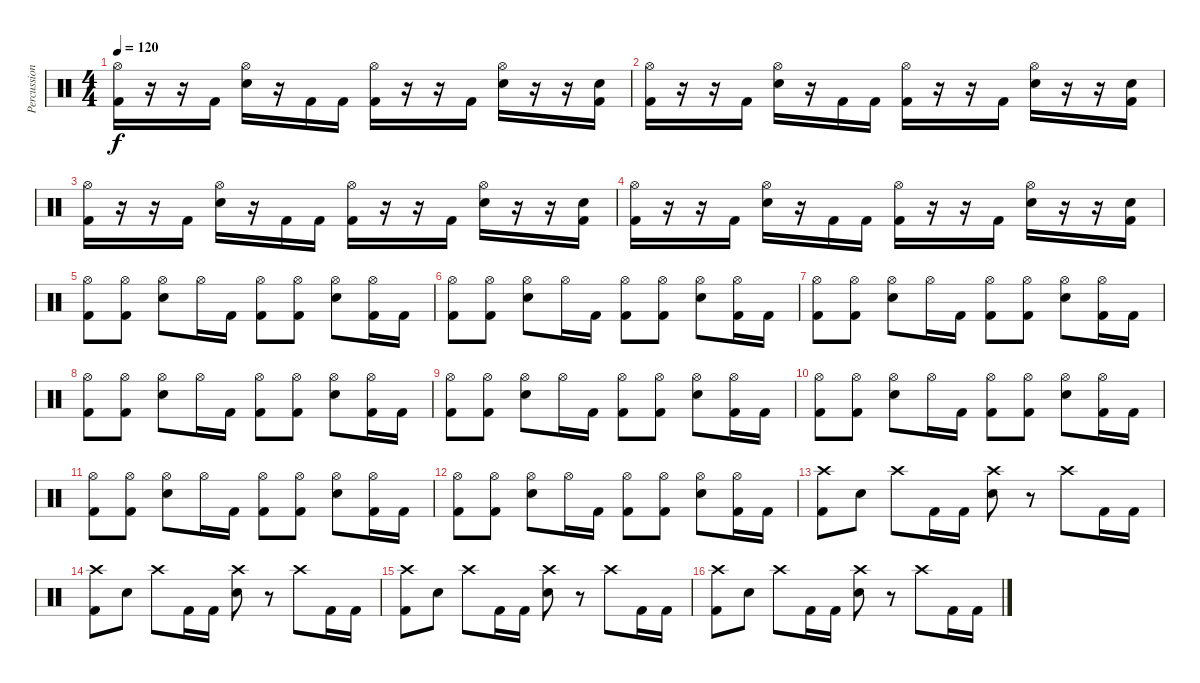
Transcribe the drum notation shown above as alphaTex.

\track ("Percussion" "Percussion") {instrument percussion}
\staff {score}
\articulation defaults
\ts (4 4)
\tempo 120
\clef neutral
\ks c
("Hi-Hat (open)" "Kick (hit) 2").16{dy f} r.16 r.16 "Kick (hit) 2".16 ("Hi-Hat (open)" "Electric Snare (hit)").16 r.16 "Kick (hit) 2".16 "Kick (hit) 2".16 ("Hi-Hat (open)" "Kick (hit) 2").16 r.16 r.16 "Kick (hit) 2".16 ("Hi-Hat (open)" "Electric Snare (hit)").16 r.16 r.16 ("Electric Snare (hit)" "Kick (hit) 2").16 |
("Hi-Hat (open)" "Kick (hit) 2").16 r.16 r.16 "Kick (hit) 2".16 ("Hi-Hat (open)" "Electric Snare (hit)").16 r.16 "Kick (hit) 2".16 "Kick (hit) 2".16 ("Hi-Hat (open)" "Kick (hit) 2").16 r.16 r.16 "Kick (hit) 2".16 ("Hi-Hat (open)" "Electric Snare (hit)").16 r.16 r.16 ("Electric Snare (hit)" "Kick (hit) 2").16 |
("Hi-Hat (open)" "Kick (hit) 2").16 r.16 r.16 "Kick (hit) 2".16 ("Hi-Hat (open)" "Electric Snare (hit)").16 r.16 "Kick (hit) 2".16 "Kick (hit) 2".16 ("Hi-Hat (open)" "Kick (hit) 2").16 r.16 r.16 "Kick (hit) 2".16 ("Hi-Hat (open)" "Electric Snare (hit)").16 r.16 r.16 ("Electric Snare (hit)" "Kick (hit) 2").16 |
("Hi-Hat (open)" "Kick (hit) 2").16 r.16 r.16 "Kick (hit) 2".16 ("Hi-Hat (open)" "Electric Snare (hit)").16 r.16 "Kick (hit) 2".16 "Kick (hit) 2".16 ("Hi-Hat (open)" "Kick (hit) 2").16 r.16 r.16 "Kick (hit) 2".16 ("Hi-Hat (open)" "Electric Snare (hit)").16 r.16 r.16 ("Electric Snare (hit)" "Kick (hit) 2").16 |
("Hi-Hat (open)" "Kick (hit) 2").8 ("Hi-Hat (open)" "Kick (hit) 2").8 ("Hi-Hat (open)" "Electric Snare (hit)").8 "Hi-Hat (open)".16 "Kick (hit) 2".16 ("Hi-Hat (open)" "Kick (hit) 2").8 ("Hi-Hat (open)" "Kick (hit) 2").8 ("Hi-Hat (open)" "Electric Snare (hit)").8 ("Hi-Hat (open)" "Kick (hit) 2").16 "Kick (hit) 2".16 |
("Hi-Hat (open)" "Kick (hit) 2").8 ("Hi-Hat (open)" "Kick (hit) 2").8 ("Hi-Hat (open)" "Electric Snare (hit)").8 "Hi-Hat (open)".16 "Kick (hit) 2".16 ("Hi-Hat (open)" "Kick (hit) 2").8 ("Hi-Hat (open)" "Kick (hit) 2").8 ("Hi-Hat (open)" "Electric Snare (hit)").8 ("Hi-Hat (open)" "Kick (hit) 2").16 "Kick (hit) 2".16 |
("Hi-Hat (open)" "Kick (hit) 2").8 ("Hi-Hat (open)" "Kick (hit) 2").8 ("Hi-Hat (open)" "Electric Snare (hit)").8 "Hi-Hat (open)".16 "Kick (hit) 2".16 ("Hi-Hat (open)" "Kick (hit) 2").8 ("Hi-Hat (open)" "Kick (hit) 2").8 ("Hi-Hat (open)" "Electric Snare (hit)").8 ("Hi-Hat (open)" "Kick (hit) 2").16 "Kick (hit) 2".16 |
("Hi-Hat (open)" "Kick (hit) 2").8 ("Hi-Hat (open)" "Kick (hit) 2").8 ("Hi-Hat (open)" "Electric Snare (hit)").8 "Hi-Hat (open)".16 "Kick (hit) 2".16 ("Hi-Hat (open)" "Kick (hit) 2").8 ("Hi-Hat (open)" "Kick (hit) 2").8 ("Hi-Hat (open)" "Electric Snare (hit)").8 ("Hi-Hat (open)" "Kick (hit) 2").16 "Kick (hit) 2".16 |
("Hi-Hat (open)" "Kick (hit) 2").8 ("Hi-Hat (open)" "Kick (hit) 2").8 ("Hi-Hat (open)" "Electric Snare (hit)").8 "Hi-Hat (open)".16 "Kick (hit) 2".16 ("Hi-Hat (open)" "Kick (hit) 2").8 ("Hi-Hat (open)" "Kick (hit) 2").8 ("Hi-Hat (open)" "Electric Snare (hit)").8 ("Hi-Hat (open)" "Kick (hit) 2").16 "Kick (hit) 2".16 |
("Hi-Hat (open)" "Kick (hit) 2").8 ("Hi-Hat (open)" "Kick (hit) 2").8 ("Hi-Hat (open)" "Electric Snare (hit)").8 "Hi-Hat (open)".16 "Kick (hit) 2".16 ("Hi-Hat (open)" "Kick (hit) 2").8 ("Hi-Hat (open)" "Kick (hit) 2").8 ("Hi-Hat (open)" "Electric Snare (hit)").8 ("Hi-Hat (open)" "Kick (hit) 2").16 "Kick (hit) 2".16 |
("Hi-Hat (open)" "Kick (hit) 2").8 ("Hi-Hat (open)" "Kick (hit) 2").8 ("Hi-Hat (open)" "Electric Snare (hit)").8 "Hi-Hat (open)".16 "Kick (hit) 2".16 ("Hi-Hat (open)" "Kick (hit) 2").8 ("Hi-Hat (open)" "Kick (hit) 2").8 ("Hi-Hat (open)" "Electric Snare (hit)").8 ("Hi-Hat (open)" "Kick (hit) 2").16 "Kick (hit) 2".16 |
("Hi-Hat (open)" "Kick (hit) 2").8 ("Hi-Hat (open)" "Kick (hit) 2").8 ("Hi-Hat (open)" "Electric Snare (hit)").8 "Hi-Hat (open)".16 "Kick (hit) 2".16 ("Hi-Hat (open)" "Kick (hit) 2").8 ("Hi-Hat (open)" "Kick (hit) 2").8 ("Hi-Hat (open)" "Electric Snare (hit)").8 ("Hi-Hat (open)" "Kick (hit) 2").16 "Kick (hit) 2".16 |
("Crash high (hit)" "Kick (hit) 2").8 "Electric Snare (hit)".8 "Crash high (hit)".8 "Kick (hit) 2".16 "Kick (hit) 2".16 ("Crash high (hit)" "Electric Snare (hit)").8 r.8 "Crash high (hit)".8 "Kick (hit) 2".16 "Kick (hit) 2".16 |
("Crash high (hit)" "Kick (hit) 2").8 "Electric Snare (hit)".8 "Crash high (hit)".8 "Kick (hit) 2".16 "Kick (hit) 2".16 ("Crash high (hit)" "Electric Snare (hit)").8 r.8 "Crash high (hit)".8 "Kick (hit) 2".16 "Kick (hit) 2".16 |
("Crash high (hit)" "Kick (hit) 2").8 "Electric Snare (hit)".8 "Crash high (hit)".8 "Kick (hit) 2".16 "Kick (hit) 2".16 ("Crash high (hit)" "Electric Snare (hit)").8 r.8 "Crash high (hit)".8 "Kick (hit) 2".16 "Kick (hit) 2".16 |
("Crash high (hit)" "Kick (hit) 2").8 "Electric Snare (hit)".8 "Crash high (hit)".8 "Kick (hit) 2".16 "Kick (hit) 2".16 ("Crash high (hit)" "Electric Snare (hit)").8 r.8 "Crash high (hit)".8 "Kick (hit) 2".16 "Kick (hit) 2".16
